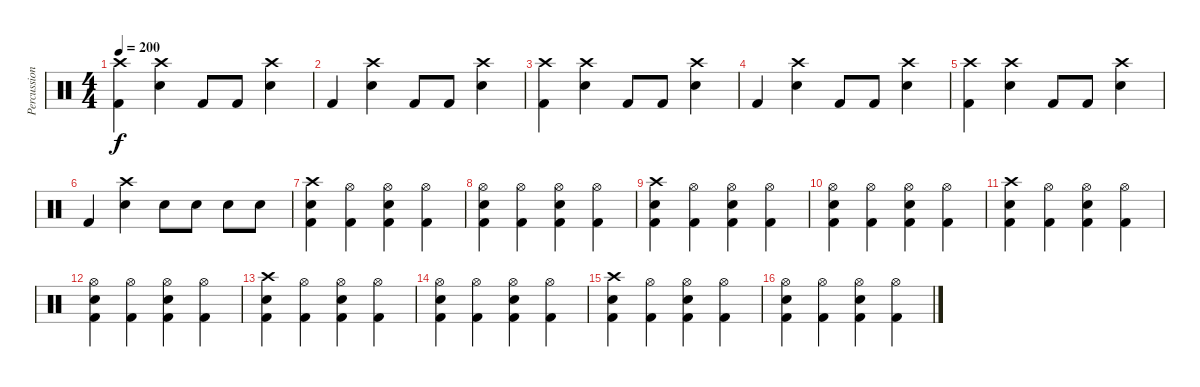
\track ("Percussion" "Percussion") {instrument percussion}
\staff {score}
\articulation defaults
\ts (4 4)
\tempo 200
\clef neutral
\ks c
("Crash high (hit)" "Kick (hit) 2").4{dy f} ("Crash high (hit)" "Snare (hit) 2").4 "Kick (hit) 2".8 "Kick (hit) 2".8 ("Crash high (hit)" "Snare (hit) 2").4 |
"Kick (hit) 2".4 ("Crash high (hit)" "Snare (hit) 2").4 "Kick (hit) 2".8 "Kick (hit) 2".8 ("Crash high (hit)" "Snare (hit) 2").4 |
("Crash high (hit)" "Kick (hit) 2").4 ("Crash high (hit)" "Snare (hit) 2").4 "Kick (hit) 2".8 "Kick (hit) 2".8 ("Crash high (hit)" "Snare (hit) 2").4 |
"Kick (hit) 2".4 ("Crash high (hit)" "Snare (hit) 2").4 "Kick (hit) 2".8 "Kick (hit) 2".8 ("Crash high (hit)" "Snare (hit) 2").4 |
("Crash high (hit)" "Kick (hit) 2").4 ("Crash high (hit)" "Snare (hit) 2").4 "Kick (hit) 2".8 "Kick (hit) 2".8 ("Crash high (hit)" "Snare (hit) 2").4 |
"Kick (hit) 2".4 ("Crash high (hit)" "Snare (hit) 2").4 "Snare (hit) 2".8 "Snare (hit) 2".8 "Snare (hit) 2".8 "Snare (hit) 2".8 |
("Crash high (hit)" "Snare (hit) 2" "Kick (hit) 2").4 ("Hi-Hat (open)" "Kick (hit) 2").4 ("Hi-Hat (open)" "Snare (hit) 2" "Kick (hit) 2").4 ("Hi-Hat (open)" "Kick (hit) 2").4 |
("Hi-Hat (open)" "Snare (hit) 2" "Kick (hit) 2").4 ("Hi-Hat (open)" "Kick (hit) 2").4 ("Hi-Hat (open)" "Snare (hit) 2" "Kick (hit) 2").4 ("Hi-Hat (open)" "Kick (hit) 2").4 |
("Crash high (hit)" "Snare (hit) 2" "Kick (hit) 2").4 ("Hi-Hat (open)" "Kick (hit) 2").4 ("Hi-Hat (open)" "Snare (hit) 2" "Kick (hit) 2").4 ("Hi-Hat (open)" "Kick (hit) 2").4 |
("Hi-Hat (open)" "Snare (hit) 2" "Kick (hit) 2").4 ("Hi-Hat (open)" "Kick (hit) 2").4 ("Hi-Hat (open)" "Snare (hit) 2" "Kick (hit) 2").4 ("Hi-Hat (open)" "Kick (hit) 2").4 |
("Crash high (hit)" "Snare (hit) 2" "Kick (hit) 2").4 ("Hi-Hat (open)" "Kick (hit) 2").4 ("Hi-Hat (open)" "Snare (hit) 2" "Kick (hit) 2").4 ("Hi-Hat (open)" "Kick (hit) 2").4 |
("Hi-Hat (open)" "Snare (hit) 2" "Kick (hit) 2").4 ("Hi-Hat (open)" "Kick (hit) 2").4 ("Hi-Hat (open)" "Snare (hit) 2" "Kick (hit) 2").4 ("Hi-Hat (open)" "Kick (hit) 2").4 |
("Crash high (hit)" "Snare (hit) 2" "Kick (hit) 2").4 ("Hi-Hat (open)" "Kick (hit) 2").4 ("Hi-Hat (open)" "Snare (hit) 2" "Kick (hit) 2").4 ("Hi-Hat (open)" "Kick (hit) 2").4 |
("Hi-Hat (open)" "Snare (hit) 2" "Kick (hit) 2").4 ("Hi-Hat (open)" "Kick (hit) 2").4 ("Hi-Hat (open)" "Snare (hit) 2" "Kick (hit) 2").4 ("Hi-Hat (open)" "Kick (hit) 2").4 |
("Crash high (hit)" "Snare (hit) 2" "Kick (hit) 2").4 ("Hi-Hat (open)" "Kick (hit) 2").4 ("Hi-Hat (open)" "Snare (hit) 2" "Kick (hit) 2").4 ("Hi-Hat (open)" "Kick (hit) 2").4 |
("Hi-Hat (open)" "Snare (hit) 2" "Kick (hit) 2").4 ("Hi-Hat (open)" "Kick (hit) 2").4 ("Hi-Hat (open)" "Snare (hit) 2" "Kick (hit) 2").4 ("Hi-Hat (open)" "Kick (hit) 2").4
